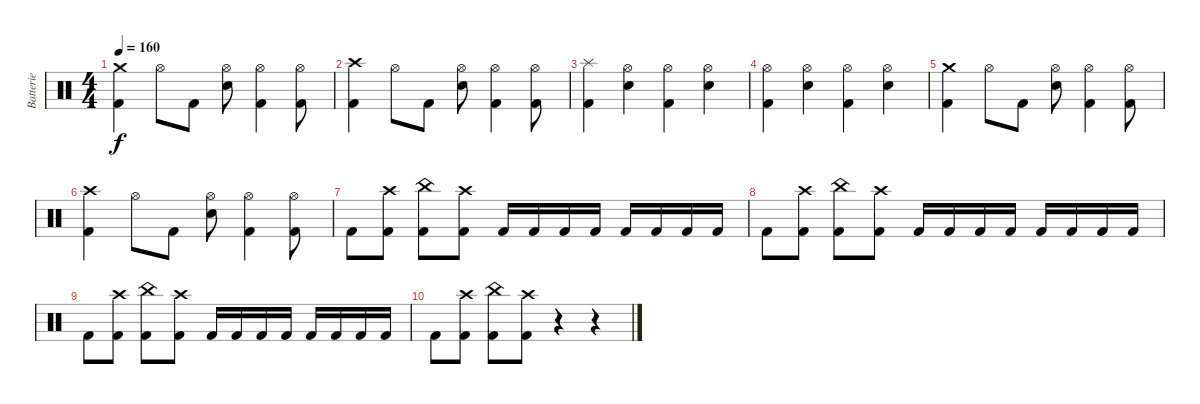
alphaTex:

\track ("Batterie" "Batterie") {instrument percussion}
\staff {score}
\articulation defaults
\ts (4 4)
\tempo 160
\clef neutral
\ks c
("Crash medium (hit)" "Kick (hit) 2").4{dy f} "Hi-Hat (open)".8 "Kick (hit) 2".8 ("Hi-Hat (open)" "Electric Snare (hit)").8 ("Hi-Hat (open)" "Kick (hit) 2").4 ("Hi-Hat (open)" "Kick (hit) 2").8 |
("Crash high (hit)" "Kick (hit) 2").4 "Hi-Hat (open)".8 "Kick (hit) 2".8 ("Hi-Hat (open)" "Electric Snare (hit)").8 ("Hi-Hat (open)" "Kick (hit) 2").4 ("Hi-Hat (open)" "Kick (hit) 2").8 |
("Splash (hit)" "Kick (hit) 2").4 ("Hi-Hat (open)" "Electric Snare (hit)").4 ("Hi-Hat (open)" "Kick (hit) 2").4 ("Hi-Hat (open)" "Electric Snare (hit)").4 |
("Hi-Hat (open)" "Kick (hit) 2").4 ("Hi-Hat (open)" "Electric Snare (hit)").4 ("Hi-Hat (open)" "Kick (hit) 2").4 ("Hi-Hat (open)" "Electric Snare (hit)").4 |
("Crash medium (hit)" "Kick (hit) 2").4 "Hi-Hat (open)".8 "Kick (hit) 2".8 ("Hi-Hat (open)" "Electric Snare (hit)").8 ("Hi-Hat (open)" "Kick (hit) 2").4 ("Hi-Hat (open)" "Kick (hit) 2").8 |
("Crash high (hit)" "Kick (hit) 2").4 "Hi-Hat (open)".8 "Kick (hit) 2".8 ("Hi-Hat (open)" "Electric Snare (hit)").8 ("Hi-Hat (open)" "Kick (hit) 2").4 ("Hi-Hat (open)" "Kick (hit) 2").8 |
"Kick (hit) 2".8 ("Crash high (hit)" "Kick (hit) 2").8 ("China (hit)" "Kick (hit) 2").8 ("Crash high (hit)" "Kick (hit) 2").8 "Kick (hit) 2".16 "Kick (hit) 2".16 "Kick (hit) 2".16 "Kick (hit) 2".16 "Kick (hit) 2".16 "Kick (hit) 2".16 "Kick (hit) 2".16 "Kick (hit) 2".16 |
"Kick (hit) 2".8 ("Crash high (hit)" "Kick (hit) 2").8 ("China (hit)" "Kick (hit) 2").8 ("Crash high (hit)" "Kick (hit) 2").8 "Kick (hit) 2".16 "Kick (hit) 2".16 "Kick (hit) 2".16 "Kick (hit) 2".16 "Kick (hit) 2".16 "Kick (hit) 2".16 "Kick (hit) 2".16 "Kick (hit) 2".16 |
"Kick (hit) 2".8 ("Crash high (hit)" "Kick (hit) 2").8 ("China (hit)" "Kick (hit) 2").8 ("Crash high (hit)" "Kick (hit) 2").8 "Kick (hit) 2".16 "Kick (hit) 2".16 "Kick (hit) 2".16 "Kick (hit) 2".16 "Kick (hit) 2".16 "Kick (hit) 2".16 "Kick (hit) 2".16 "Kick (hit) 2".16 |
"Kick (hit) 2".8 ("Crash high (hit)" "Kick (hit) 2").8 ("China (hit)" "Kick (hit) 2").8 ("Crash high (hit)" "Kick (hit) 2").8 r.4 r.4
